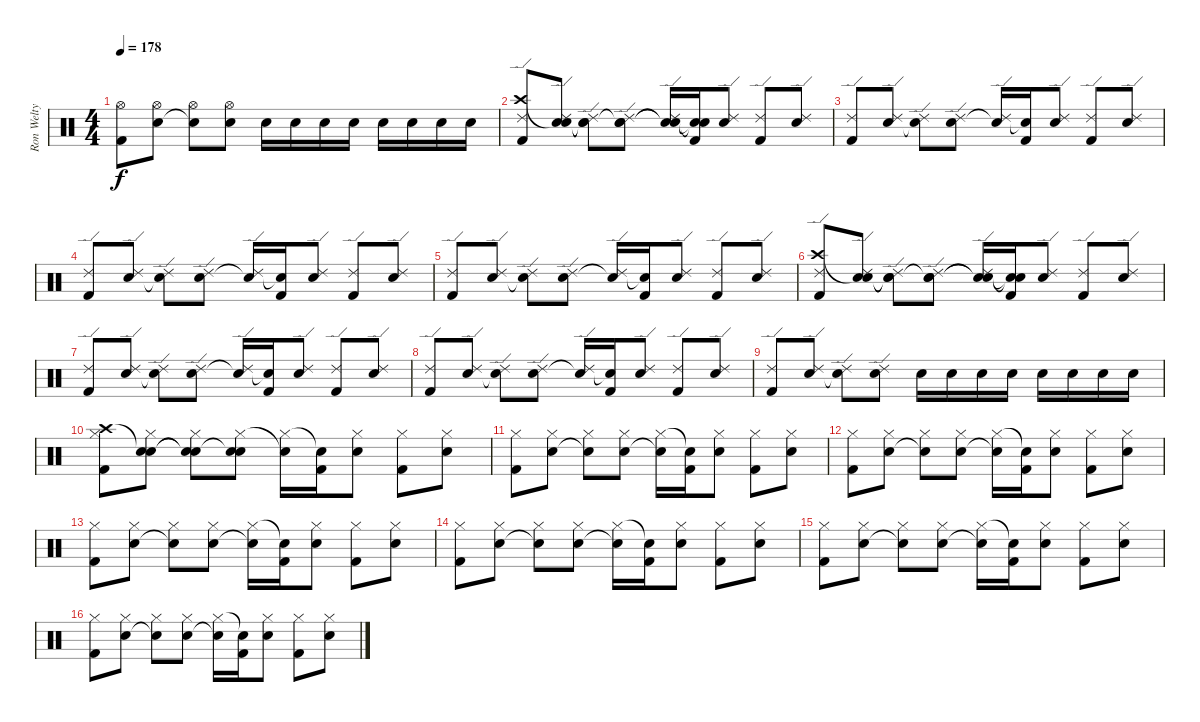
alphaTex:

\track ("Ron Welty (Drums)" "Ron Welty ") {instrument percussion}
\staff {score}
\articulation defaults
\ts (4 4)
\tempo 178
\clef neutral
\ks c
("Hi-Hat (open)" "Kick (hit) 2").8{dy f} ("Hi-Hat (open)" "Electric Snare (hit)").8 ("Hi-Hat (open)" "Snare (hit)"{t}).8 ("Hi-Hat (open)" "Electric Snare (hit)").8 "Electric Snare (hit)".16 "Electric Snare (hit)".16 "Electric Snare (hit)".16 "Electric Snare (hit)".16 "Electric Snare (hit)".16 "Electric Snare (hit)".16 "Electric Snare (hit)".16 "Electric Snare (hit)".16 |
("Crash high (hit)" "Ride (edge) 2" "Kick (hit) 2").8 ("Snare (hit)"{t} "Ride (edge) 2" "Electric Snare (hit)").8 ("Snare (hit)"{t} "Ride (edge) 2" "Snare (hit)"{t}).8 ("Snare (hit)"{t} "Ride (edge) 2" "Electric Snare (hit)").8 ("Snare (hit)"{t} "Ride (edge) 2" "Snare (hit)"{t}).16 ("Snare (hit)"{t} "Snare (hit)"{t} "Kick (hit) 2").16 ("Ride (edge) 2" "Electric Snare (hit)").8 ("Ride (edge) 2" "Kick (hit) 2").8 ("Ride (edge) 2" "Electric Snare (hit)").8 |
("Ride (edge) 2" "Kick (hit) 2").8 ("Ride (edge) 2" "Electric Snare (hit)").8 ("Ride (edge) 2" "Snare (hit)"{t}).8 ("Ride (edge) 2" "Electric Snare (hit)").8 ("Ride (edge) 2" "Snare (hit)"{t}).16 ("Snare (hit)"{t} "Kick (hit) 2").16 ("Ride (edge) 2" "Electric Snare (hit)").8 ("Ride (edge) 2" "Kick (hit) 2").8 ("Ride (edge) 2" "Electric Snare (hit)").8 |
("Ride (edge) 2" "Kick (hit) 2").8 ("Ride (edge) 2" "Electric Snare (hit)").8 ("Ride (edge) 2" "Snare (hit)"{t}).8 ("Ride (edge) 2" "Electric Snare (hit)").8 ("Ride (edge) 2" "Snare (hit)"{t}).16 ("Snare (hit)"{t} "Kick (hit) 2").16 ("Ride (edge) 2" "Electric Snare (hit)").8 ("Ride (edge) 2" "Kick (hit) 2").8 ("Ride (edge) 2" "Electric Snare (hit)").8 |
("Ride (edge) 2" "Kick (hit) 2").8 ("Ride (edge) 2" "Electric Snare (hit)").8 ("Ride (edge) 2" "Snare (hit)"{t}).8 ("Ride (edge) 2" "Electric Snare (hit)").8 ("Ride (edge) 2" "Snare (hit)"{t}).16 ("Snare (hit)"{t} "Kick (hit) 2").16 ("Ride (edge) 2" "Electric Snare (hit)").8 ("Ride (edge) 2" "Kick (hit) 2").8 ("Ride (edge) 2" "Electric Snare (hit)").8 |
("Crash high (hit)" "Ride (edge) 2" "Kick (hit) 2").8 ("Snare (hit)"{t} "Ride (edge) 2" "Electric Snare (hit)").8 ("Snare (hit)"{t} "Ride (edge) 2" "Snare (hit)"{t}).8 ("Snare (hit)"{t} "Ride (edge) 2" "Electric Snare (hit)").8 ("Snare (hit)"{t} "Ride (edge) 2" "Snare (hit)"{t}).16 ("Snare (hit)"{t} "Snare (hit)"{t} "Kick (hit) 2").16 ("Ride (edge) 2" "Electric Snare (hit)").8 ("Ride (edge) 2" "Kick (hit) 2").8 ("Ride (edge) 2" "Electric Snare (hit)").8 |
("Ride (edge) 2" "Kick (hit) 2").8 ("Ride (edge) 2" "Electric Snare (hit)").8 ("Ride (edge) 2" "Snare (hit)"{t}).8 ("Ride (edge) 2" "Electric Snare (hit)").8 ("Ride (edge) 2" "Snare (hit)"{t}).16 ("Snare (hit)"{t} "Kick (hit) 2").16 ("Ride (edge) 2" "Electric Snare (hit)").8 ("Ride (edge) 2" "Kick (hit) 2").8 ("Ride (edge) 2" "Electric Snare (hit)").8 |
("Ride (edge) 2" "Kick (hit) 2").8 ("Ride (edge) 2" "Electric Snare (hit)").8 ("Ride (edge) 2" "Snare (hit)"{t}).8 ("Ride (edge) 2" "Electric Snare (hit)").8 ("Ride (edge) 2" "Snare (hit)"{t}).16 ("Snare (hit)"{t} "Kick (hit) 2").16 ("Ride (edge) 2" "Electric Snare (hit)").8 ("Ride (edge) 2" "Kick (hit) 2").8 ("Ride (edge) 2" "Electric Snare (hit)").8 |
("Ride (edge) 2" "Kick (hit) 2").8 ("Ride (edge) 2" "Electric Snare (hit)").8 ("Ride (edge) 2" "Snare (hit)"{t}).8 ("Ride (edge) 2" "Electric Snare (hit)").8 "Electric Snare (hit)".16 "Electric Snare (hit)".16 "Electric Snare (hit)".16 "Electric Snare (hit)".16 "Electric Snare (hit)".16 "Electric Snare (hit)".16 "Electric Snare (hit)".16 "Electric Snare (hit)".16 |
("Crash high (hit)" "Hi-Hat (closed)" "Kick (hit) 2").8 ("Snare (hit)"{t} "Hi-Hat (closed)" "Electric Snare (hit)").8 ("Snare (hit)"{t} "Hi-Hat (closed)" "Snare (hit)"{t}).8 ("Snare (hit)"{t} "Hi-Hat (closed)" "Electric Snare (hit)").8 ("Hi-Hat (closed)" "Snare (hit)"{t}).16 ("Snare (hit)"{t} "Kick (hit) 2").16 ("Hi-Hat (closed)" "Electric Snare (hit)").8 ("Hi-Hat (closed)" "Kick (hit) 2").8 ("Hi-Hat (closed)" "Electric Snare (hit)").8 |
("Hi-Hat (closed)" "Kick (hit) 2").8 ("Hi-Hat (closed)" "Electric Snare (hit)").8 ("Hi-Hat (closed)" "Snare (hit)"{t}).8 ("Hi-Hat (closed)" "Electric Snare (hit)").8 ("Hi-Hat (closed)" "Snare (hit)"{t}).16 ("Snare (hit)"{t} "Kick (hit) 2").16 ("Hi-Hat (closed)" "Electric Snare (hit)").8 ("Hi-Hat (closed)" "Kick (hit) 2").8 ("Hi-Hat (closed)" "Electric Snare (hit)").8 |
("Hi-Hat (closed)" "Kick (hit) 2").8 ("Hi-Hat (closed)" "Electric Snare (hit)").8 ("Hi-Hat (closed)" "Snare (hit)"{t}).8 ("Hi-Hat (closed)" "Electric Snare (hit)").8 ("Hi-Hat (closed)" "Snare (hit)"{t}).16 ("Snare (hit)"{t} "Kick (hit) 2").16 ("Hi-Hat (closed)" "Electric Snare (hit)").8 ("Hi-Hat (closed)" "Kick (hit) 2").8 ("Hi-Hat (closed)" "Electric Snare (hit)").8 |
("Hi-Hat (closed)" "Kick (hit) 2").8 ("Hi-Hat (closed)" "Electric Snare (hit)").8 ("Hi-Hat (closed)" "Snare (hit)"{t}).8 ("Hi-Hat (closed)" "Electric Snare (hit)").8 ("Hi-Hat (closed)" "Snare (hit)"{t}).16 ("Snare (hit)"{t} "Kick (hit) 2").16 ("Hi-Hat (closed)" "Electric Snare (hit)").8 ("Hi-Hat (closed)" "Kick (hit) 2").8 ("Hi-Hat (closed)" "Electric Snare (hit)").8 |
("Hi-Hat (closed)" "Kick (hit) 2").8 ("Hi-Hat (closed)" "Electric Snare (hit)").8 ("Hi-Hat (closed)" "Snare (hit)"{t}).8 ("Hi-Hat (closed)" "Electric Snare (hit)").8 ("Hi-Hat (closed)" "Snare (hit)"{t}).16 ("Snare (hit)"{t} "Kick (hit) 2").16 ("Hi-Hat (closed)" "Electric Snare (hit)").8 ("Hi-Hat (closed)" "Kick (hit) 2").8 ("Hi-Hat (closed)" "Electric Snare (hit)").8 |
("Hi-Hat (closed)" "Kick (hit) 2").8 ("Hi-Hat (closed)" "Electric Snare (hit)").8 ("Hi-Hat (closed)" "Snare (hit)"{t}).8 ("Hi-Hat (closed)" "Electric Snare (hit)").8 ("Hi-Hat (closed)" "Snare (hit)"{t}).16 ("Snare (hit)"{t} "Kick (hit) 2").16 ("Hi-Hat (closed)" "Electric Snare (hit)").8 ("Hi-Hat (closed)" "Kick (hit) 2").8 ("Hi-Hat (closed)" "Electric Snare (hit)").8 |
("Hi-Hat (closed)" "Kick (hit) 2").8 ("Hi-Hat (closed)" "Electric Snare (hit)").8 ("Hi-Hat (closed)" "Snare (hit)"{t}).8 ("Hi-Hat (closed)" "Electric Snare (hit)").8 ("Hi-Hat (closed)" "Snare (hit)"{t}).16 ("Snare (hit)"{t} "Kick (hit) 2").16 ("Hi-Hat (closed)" "Electric Snare (hit)").8 ("Hi-Hat (closed)" "Kick (hit) 2").8 ("Hi-Hat (closed)" "Electric Snare (hit)").8
